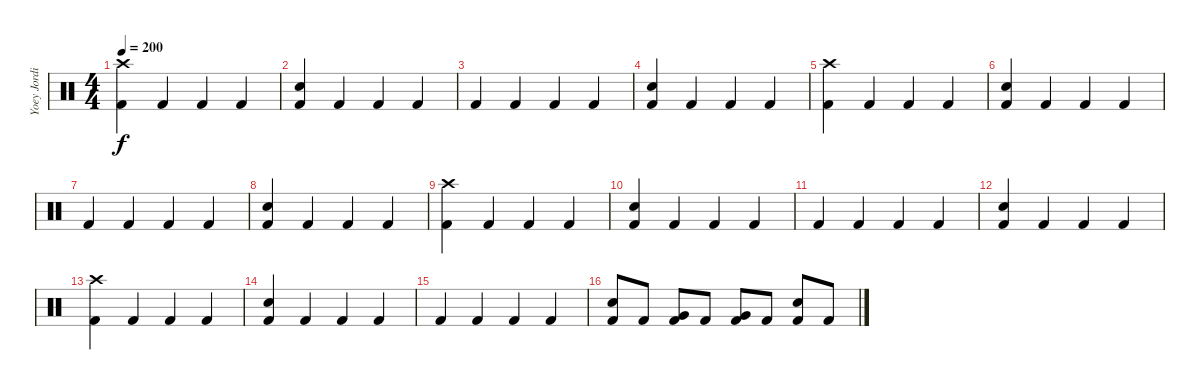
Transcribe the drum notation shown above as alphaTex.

\track ("Yoey Jordison" "Yoey Jordi") {instrument percussion}
\staff {score}
\articulation defaults
\ts (4 4)
\tempo 200
\clef neutral
\ks c
("Crash high (hit)" "Kick (hit) 2").4{dy f} "Kick (hit) 2".4 "Kick (hit) 2".4 "Kick (hit) 2".4 |
("Kick (hit) 2" "Snare (hit) 2").4 "Kick (hit) 2".4 "Kick (hit) 2".4 "Kick (hit) 2".4 |
"Kick (hit) 2".4 "Kick (hit) 2".4 "Kick (hit) 2".4 "Kick (hit) 2".4 |
("Kick (hit) 2" "Snare (hit) 2").4 "Kick (hit) 2".4 "Kick (hit) 2".4 "Kick (hit) 2".4 |
("Crash high (hit)" "Kick (hit) 2").4 "Kick (hit) 2".4 "Kick (hit) 2".4 "Kick (hit) 2".4 |
("Kick (hit) 2" "Snare (hit) 2").4 "Kick (hit) 2".4 "Kick (hit) 2".4 "Kick (hit) 2".4 |
"Kick (hit) 2".4 "Kick (hit) 2".4 "Kick (hit) 2".4 "Kick (hit) 2".4 |
("Kick (hit) 2" "Snare (hit) 2").4 "Kick (hit) 2".4 "Kick (hit) 2".4 "Kick (hit) 2".4 |
("Crash high (hit)" "Kick (hit) 2").4 "Kick (hit) 2".4 "Kick (hit) 2".4 "Kick (hit) 2".4 |
("Kick (hit) 2" "Snare (hit) 2").4 "Kick (hit) 2".4 "Kick (hit) 2".4 "Kick (hit) 2".4 |
"Kick (hit) 2".4 "Kick (hit) 2".4 "Kick (hit) 2".4 "Kick (hit) 2".4 |
("Kick (hit) 2" "Snare (hit) 2").4 "Kick (hit) 2".4 "Kick (hit) 2".4 "Kick (hit) 2".4 |
("Crash high (hit)" "Kick (hit) 2").4 "Kick (hit) 2".4 "Kick (hit) 2".4 "Kick (hit) 2".4 |
("Kick (hit) 2" "Snare (hit) 2").4 "Kick (hit) 2".4 "Kick (hit) 2".4 "Kick (hit) 2".4 |
"Kick (hit) 2".4 "Kick (hit) 2".4 "Kick (hit) 2".4 "Kick (hit) 2".4 |
("Kick (hit) 2" "Snare (hit) 2").8 "Kick (hit) 2".8 ("Kick (hit) 2" "Very Low Tom (hit)").8 "Kick (hit) 2".8 ("Kick (hit) 2" "Very Low Tom (hit)").8 "Kick (hit) 2".8 ("Kick (hit) 2" "Snare (hit) 2").8 "Kick (hit) 2".8
